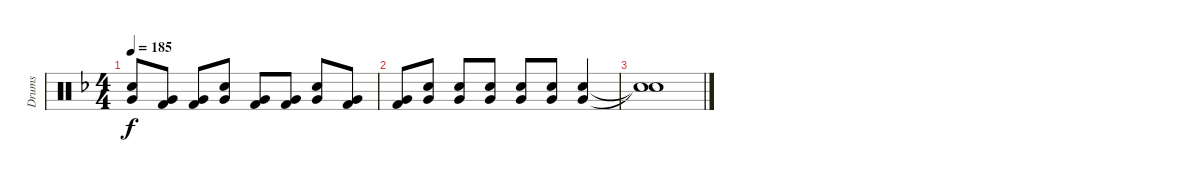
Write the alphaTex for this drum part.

\track ("Drums" "Drums") {instrument percussion}
\staff {score}
\articulation defaults
\ts (4 4)
\tempo 185
\clef neutral
\ks f
("Snare (hit) 2" "Very Low Tom (hit)").8{dy f} ("Kick (hit) 2" "Very Low Tom (hit)").8 ("Kick (hit) 2" "Very Low Tom (hit)").8 ("Snare (hit) 2" "Very Low Tom (hit)").8 ("Kick (hit) 2" "Very Low Tom (hit)").8 ("Kick (hit) 2" "Very Low Tom (hit)").8 ("Snare (hit) 2" "Very Low Tom (hit)").8 ("Kick (hit) 2" "Very Low Tom (hit)").8 |
("Kick (hit) 2" "Very Low Tom (hit)").8 ("Snare (hit) 2" "Very Low Tom (hit)").8 ("Snare (hit) 2" "Very Low Tom (hit)").8 ("Snare (hit) 2" "Very Low Tom (hit)").8 ("Snare (hit) 2" "Very Low Tom (hit)").8 ("Snare (hit) 2" "Very Low Tom (hit)").8 ("Snare (hit) 2" "Very Low Tom (hit)").4 |
("Snare (hit)"{t} "Snare (hit)"{t}).1
